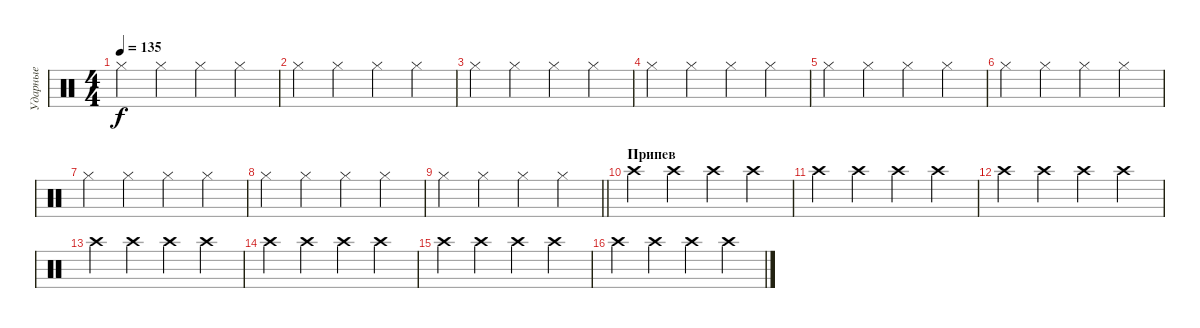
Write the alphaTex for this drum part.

\track ("Ударные" "Ударные") {instrument percussion}
\staff {score}
\articulation defaults
\ts (4 4)
\tempo 135
\clef neutral
\ks c "Hi-Hat (closed)".4{dy f} "Hi-Hat (closed)".4 "Hi-Hat (closed)".4 "Hi-Hat (closed)".4
|
"Hi-Hat (closed)".4 "Hi-Hat (closed)".4 "Hi-Hat (closed)".4 "Hi-Hat (closed)".4 |
"Hi-Hat (closed)".4 "Hi-Hat (closed)".4 "Hi-Hat (closed)".4 "Hi-Hat (closed)".4 |
"Hi-Hat (closed)".4 "Hi-Hat (closed)".4 "Hi-Hat (closed)".4 "Hi-Hat (closed)".4 |
"Hi-Hat (closed)".4 "Hi-Hat (closed)".4 "Hi-Hat (closed)".4 "Hi-Hat (closed)".4 |
"Hi-Hat (closed)".4 "Hi-Hat (closed)".4 "Hi-Hat (closed)".4 "Hi-Hat (closed)".4 |
"Hi-Hat (closed)".4 "Hi-Hat (closed)".4 "Hi-Hat (closed)".4 "Hi-Hat (closed)".4 |
"Hi-Hat (closed)".4 "Hi-Hat (closed)".4 "Hi-Hat (closed)".4 "Hi-Hat (closed)".4 |
\barLineRight lightlight "Hi-Hat (closed)".4 "Hi-Hat (closed)".4 "Hi-Hat (closed)".4 "Hi-Hat (closed)".4
|
\section ("" "Припев")
"Crash high (hit)".4 "Crash high (hit)".4 "Crash high (hit)".4 "Crash high (hit)".4 |
"Crash high (hit)".4 "Crash high (hit)".4 "Crash high (hit)".4 "Crash high (hit)".4 |
"Crash high (hit)".4 "Crash high (hit)".4 "Crash high (hit)".4 "Crash high (hit)".4 |
"Crash high (hit)".4 "Crash high (hit)".4 "Crash high (hit)".4 "Crash high (hit)".4 |
"Crash high (hit)".4 "Crash high (hit)".4 "Crash high (hit)".4 "Crash high (hit)".4 |
"Crash high (hit)".4 "Crash high (hit)".4 "Crash high (hit)".4 "Crash high (hit)".4 |
"Crash high (hit)".4 "Crash high (hit)".4 "Crash high (hit)".4 "Crash high (hit)".4
